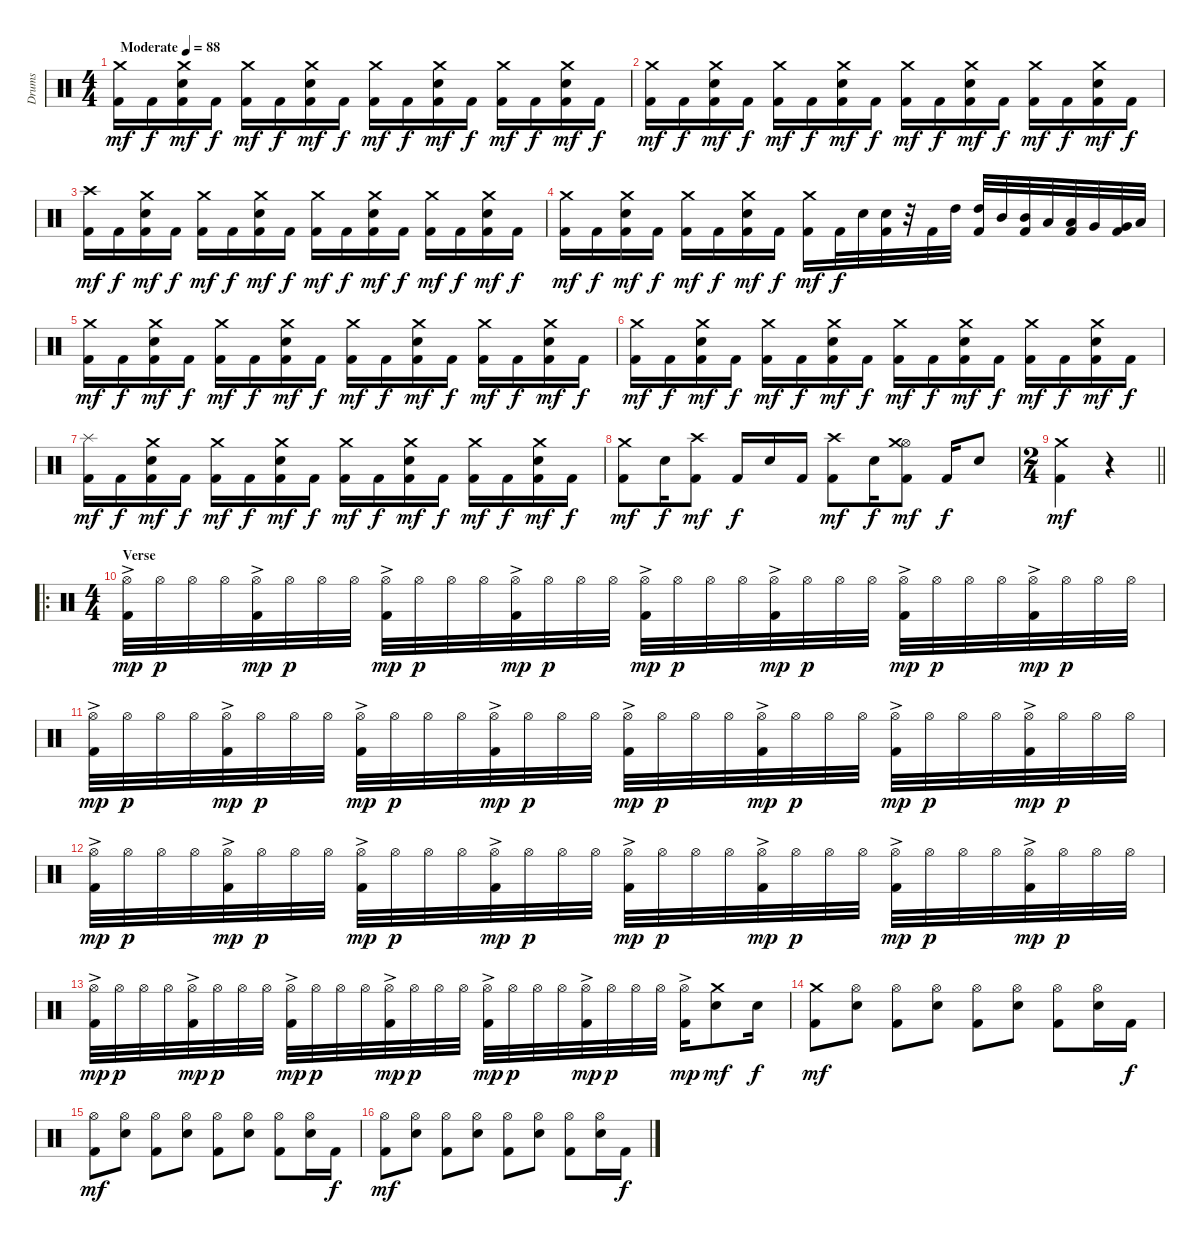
\track ("Drums" "Drums") {instrument percussion}
\staff {score}
\articulation defaults
\ts (4 4)
\tempo (88 "Moderate")
\clef neutral
\ks c
("Crash medium (hit)" "Kick (hit) 2").16{dy mf} "Kick (hit) 2".16{dy f} ("Crash medium (hit)" "Electric Snare (hit)" "Kick (hit) 2").16{dy mf} "Kick (hit) 2".16{dy f} ("Crash medium (hit)" "Kick (hit) 2").16{dy mf} "Kick (hit) 2".16{dy f} ("Crash medium (hit)" "Electric Snare (hit)" "Kick (hit) 2").16{dy mf} "Kick (hit) 2".16{dy f} ("Crash medium (hit)" "Kick (hit) 2").16{dy mf} "Kick (hit) 2".16{dy f} ("Crash medium (hit)" "Electric Snare (hit)" "Kick (hit) 2").16{dy mf} "Kick (hit) 2".16{dy f} ("Crash medium (hit)" "Kick (hit) 2").16{dy mf} "Kick (hit) 2".16{dy f} ("Crash medium (hit)" "Electric Snare (hit)" "Kick (hit) 2").16{dy mf} "Kick (hit) 2".16{dy f} |
("Crash medium (hit)" "Kick (hit) 2").16{dy mf} "Kick (hit) 2".16{dy f} ("Crash medium (hit)" "Electric Snare (hit)" "Kick (hit) 2").16{dy mf} "Kick (hit) 2".16{dy f} ("Crash medium (hit)" "Kick (hit) 2").16{dy mf} "Kick (hit) 2".16{dy f} ("Crash medium (hit)" "Electric Snare (hit)" "Kick (hit) 2").16{dy mf} "Kick (hit) 2".16{dy f} ("Crash medium (hit)" "Kick (hit) 2").16{dy mf} "Kick (hit) 2".16{dy f} ("Crash medium (hit)" "Electric Snare (hit)" "Kick (hit) 2").16{dy mf} "Kick (hit) 2".16{dy f} ("Crash medium (hit)" "Kick (hit) 2").16{dy mf} "Kick (hit) 2".16{dy f} ("Crash medium (hit)" "Electric Snare (hit)" "Kick (hit) 2").16{dy mf} "Kick (hit) 2".16{dy f} |
("Crash high (hit)" "Kick (hit) 2").16{dy mf} "Kick (hit) 2".16{dy f} ("Crash medium (hit)" "Electric Snare (hit)" "Kick (hit) 2").16{dy mf} "Kick (hit) 2".16{dy f} ("Crash medium (hit)" "Kick (hit) 2").16{dy mf} "Kick (hit) 2".16{dy f} ("Crash medium (hit)" "Electric Snare (hit)" "Kick (hit) 2").16{dy mf} "Kick (hit) 2".16{dy f} ("Crash medium (hit)" "Kick (hit) 2").16{dy mf} "Kick (hit) 2".16{dy f} ("Crash medium (hit)" "Electric Snare (hit)" "Kick (hit) 2").16{dy mf} "Kick (hit) 2".16{dy f} ("Crash medium (hit)" "Kick (hit) 2").16{dy mf} "Kick (hit) 2".16{dy f} ("Crash medium (hit)" "Electric Snare (hit)" "Kick (hit) 2").16{dy mf} "Kick (hit) 2".16{dy f} |
("Crash medium (hit)" "Kick (hit) 2").16{dy mf} "Kick (hit) 2".16{dy f} ("Crash medium (hit)" "Electric Snare (hit)" "Kick (hit) 2").16{dy mf} "Kick (hit) 2".16{dy f} ("Crash medium (hit)" "Kick (hit) 2").16{dy mf} "Kick (hit) 2".16{dy f} ("Crash medium (hit)" "Electric Snare (hit)" "Kick (hit) 2").16{dy mf} "Kick (hit) 2".16{dy f} ("Crash medium (hit)" "Kick (hit) 2").16{dy mf} "Kick (hit) 2".32{dy f} "Electric Snare (hit)".32 ("Electric Snare (hit)" "Kick (hit) 2").32 r.32 "Kick (hit) 2".32 "High Tom (hit)".32 ("High Tom (hit)" "Kick (hit) 2").32 "Mid Tom (hit)".32 ("Mid Tom (hit)" "Kick (hit) 2").32 "Low Tom (hit)".32 ("Low Tom (hit)" "Kick (hit) 2").32 "Very Low Tom (hit)".32 ("Very Low Tom (hit)" "Kick (hit) 2").32 "Low Floor Tom (hit)".32 |
("Crash medium (hit)" "Kick (hit) 2").16{dy mf} "Kick (hit) 2".16{dy f} ("Crash medium (hit)" "Electric Snare (hit)" "Kick (hit) 2").16{dy mf} "Kick (hit) 2".16{dy f} ("Crash medium (hit)" "Kick (hit) 2").16{dy mf} "Kick (hit) 2".16{dy f} ("Crash medium (hit)" "Electric Snare (hit)" "Kick (hit) 2").16{dy mf} "Kick (hit) 2".16{dy f} ("Crash medium (hit)" "Kick (hit) 2").16{dy mf} "Kick (hit) 2".16{dy f} ("Crash medium (hit)" "Electric Snare (hit)" "Kick (hit) 2").16{dy mf} "Kick (hit) 2".16{dy f} ("Crash medium (hit)" "Kick (hit) 2").16{dy mf} "Kick (hit) 2".16{dy f} ("Crash medium (hit)" "Electric Snare (hit)" "Kick (hit) 2").16{dy mf} "Kick (hit) 2".16{dy f} |
("Crash medium (hit)" "Kick (hit) 2").16{dy mf} "Kick (hit) 2".16{dy f} ("Crash medium (hit)" "Electric Snare (hit)" "Kick (hit) 2").16{dy mf} "Kick (hit) 2".16{dy f} ("Crash medium (hit)" "Kick (hit) 2").16{dy mf} "Kick (hit) 2".16{dy f} ("Crash medium (hit)" "Electric Snare (hit)" "Kick (hit) 2").16{dy mf} "Kick (hit) 2".16{dy f} ("Crash medium (hit)" "Kick (hit) 2").16{dy mf} "Kick (hit) 2".16{dy f} ("Crash medium (hit)" "Electric Snare (hit)" "Kick (hit) 2").16{dy mf} "Kick (hit) 2".16{dy f} ("Crash medium (hit)" "Kick (hit) 2").16{dy mf} "Kick (hit) 2".16{dy f} ("Crash medium (hit)" "Electric Snare (hit)" "Kick (hit) 2").16{dy mf} "Kick (hit) 2".16{dy f} |
("Splash (hit)" "Kick (hit) 2").16{dy mf} "Kick (hit) 2".16{dy f} ("Crash medium (hit)" "Electric Snare (hit)" "Kick (hit) 2").16{dy mf} "Kick (hit) 2".16{dy f} ("Crash medium (hit)" "Kick (hit) 2").16{dy mf} "Kick (hit) 2".16{dy f} ("Crash medium (hit)" "Electric Snare (hit)" "Kick (hit) 2").16{dy mf} "Kick (hit) 2".16{dy f} ("Crash medium (hit)" "Kick (hit) 2").16{dy mf} "Kick (hit) 2".16{dy f} ("Crash medium (hit)" "Electric Snare (hit)" "Kick (hit) 2").16{dy mf} "Kick (hit) 2".16{dy f} ("Crash medium (hit)" "Kick (hit) 2").16{dy mf} "Kick (hit) 2".16{dy f} ("Crash medium (hit)" "Electric Snare (hit)" "Kick (hit) 2").16{dy mf} "Kick (hit) 2".16{dy f} |
("Crash medium (hit)" "Kick (hit) 2").8{dy mf} "Electric Snare (hit)".16{dy f} ("Crash high (hit)" "Kick (hit) 2").8{dy mf} "Kick (hit) 2".16{dy f} "Electric Snare (hit)".16 "Kick (hit) 2".16 ("Crash high (hit)" "Kick (hit) 2").8{dy mf} "Electric Snare (hit)".16{dy f} ("Hi-Hat (open)" "Crash medium (hit)" "Kick (hit) 2").8{dy mf} "Kick (hit) 2".16{dy f} "Electric Snare (hit)".8 |
\ts (2 4)
\barLineRight lightlight
("Crash medium (hit)" "Kick (hit) 2").4{dy mf} r.4 |
\ro
\ts (4 4)
\section ("" "Verse")
("Hi-Hat (open)"{ac} "Kick (hit) 2").32{dy mp} "Hi-Hat (open)".32{dy p} "Hi-Hat (open)".32 "Hi-Hat (open)".32 ("Hi-Hat (open)"{ac} "Kick (hit) 2").32{dy mp} "Hi-Hat (open)".32{dy p} "Hi-Hat (open)".32 "Hi-Hat (open)".32 ("Hi-Hat (open)"{ac} "Kick (hit) 2").32{dy mp} "Hi-Hat (open)".32{dy p} "Hi-Hat (open)".32 "Hi-Hat (open)".32 ("Hi-Hat (open)"{ac} "Kick (hit) 2").32{dy mp} "Hi-Hat (open)".32{dy p} "Hi-Hat (open)".32 "Hi-Hat (open)".32 ("Hi-Hat (open)"{ac} "Kick (hit) 2").32{dy mp} "Hi-Hat (open)".32{dy p} "Hi-Hat (open)".32 "Hi-Hat (open)".32 ("Hi-Hat (open)"{ac} "Kick (hit) 2").32{dy mp} "Hi-Hat (open)".32{dy p} "Hi-Hat (open)".32 "Hi-Hat (open)".32 ("Hi-Hat (open)"{ac} "Kick (hit) 2").32{dy mp} "Hi-Hat (open)".32{dy p} "Hi-Hat (open)".32 "Hi-Hat (open)".32 ("Hi-Hat (open)"{ac} "Kick (hit) 2").32{dy mp} "Hi-Hat (open)".32{dy p} "Hi-Hat (open)".32 "Hi-Hat (open)".32 |
("Hi-Hat (open)"{ac} "Kick (hit) 2").32{dy mp} "Hi-Hat (open)".32{dy p} "Hi-Hat (open)".32 "Hi-Hat (open)".32 ("Hi-Hat (open)"{ac} "Kick (hit) 2").32{dy mp} "Hi-Hat (open)".32{dy p} "Hi-Hat (open)".32 "Hi-Hat (open)".32 ("Hi-Hat (open)"{ac} "Kick (hit) 2").32{dy mp} "Hi-Hat (open)".32{dy p} "Hi-Hat (open)".32 "Hi-Hat (open)".32 ("Hi-Hat (open)"{ac} "Kick (hit) 2").32{dy mp} "Hi-Hat (open)".32{dy p} "Hi-Hat (open)".32 "Hi-Hat (open)".32 ("Hi-Hat (open)"{ac} "Kick (hit) 2").32{dy mp} "Hi-Hat (open)".32{dy p} "Hi-Hat (open)".32 "Hi-Hat (open)".32 ("Hi-Hat (open)"{ac} "Kick (hit) 2").32{dy mp} "Hi-Hat (open)".32{dy p} "Hi-Hat (open)".32 "Hi-Hat (open)".32 ("Hi-Hat (open)"{ac} "Kick (hit) 2").32{dy mp} "Hi-Hat (open)".32{dy p} "Hi-Hat (open)".32 "Hi-Hat (open)".32 ("Hi-Hat (open)"{ac} "Kick (hit) 2").32{dy mp} "Hi-Hat (open)".32{dy p} "Hi-Hat (open)".32 "Hi-Hat (open)".32 |
("Hi-Hat (open)"{ac} "Kick (hit) 2").32{dy mp} "Hi-Hat (open)".32{dy p} "Hi-Hat (open)".32 "Hi-Hat (open)".32 ("Hi-Hat (open)"{ac} "Kick (hit) 2").32{dy mp} "Hi-Hat (open)".32{dy p} "Hi-Hat (open)".32 "Hi-Hat (open)".32 ("Hi-Hat (open)"{ac} "Kick (hit) 2").32{dy mp} "Hi-Hat (open)".32{dy p} "Hi-Hat (open)".32 "Hi-Hat (open)".32 ("Hi-Hat (open)"{ac} "Kick (hit) 2").32{dy mp} "Hi-Hat (open)".32{dy p} "Hi-Hat (open)".32 "Hi-Hat (open)".32 ("Hi-Hat (open)"{ac} "Kick (hit) 2").32{dy mp} "Hi-Hat (open)".32{dy p} "Hi-Hat (open)".32 "Hi-Hat (open)".32 ("Hi-Hat (open)"{ac} "Kick (hit) 2").32{dy mp} "Hi-Hat (open)".32{dy p} "Hi-Hat (open)".32 "Hi-Hat (open)".32 ("Hi-Hat (open)"{ac} "Kick (hit) 2").32{dy mp} "Hi-Hat (open)".32{dy p} "Hi-Hat (open)".32 "Hi-Hat (open)".32 ("Hi-Hat (open)"{ac} "Kick (hit) 2").32{dy mp} "Hi-Hat (open)".32{dy p} "Hi-Hat (open)".32 "Hi-Hat (open)".32 |
("Hi-Hat (open)"{ac} "Kick (hit) 2").32{dy mp} "Hi-Hat (open)".32{dy p} "Hi-Hat (open)".32 "Hi-Hat (open)".32 ("Hi-Hat (open)"{ac} "Kick (hit) 2").32{dy mp} "Hi-Hat (open)".32{dy p} "Hi-Hat (open)".32 "Hi-Hat (open)".32 ("Hi-Hat (open)"{ac} "Kick (hit) 2").32{dy mp} "Hi-Hat (open)".32{dy p} "Hi-Hat (open)".32 "Hi-Hat (open)".32 ("Hi-Hat (open)"{ac} "Kick (hit) 2").32{dy mp} "Hi-Hat (open)".32{dy p} "Hi-Hat (open)".32 "Hi-Hat (open)".32 ("Hi-Hat (open)"{ac} "Kick (hit) 2").32{dy mp} "Hi-Hat (open)".32{dy p} "Hi-Hat (open)".32 "Hi-Hat (open)".32 ("Hi-Hat (open)"{ac} "Kick (hit) 2").32{dy mp} "Hi-Hat (open)".32{dy p} "Hi-Hat (open)".32 "Hi-Hat (open)".32 ("Hi-Hat (open)"{ac} "Kick (hit) 2").16{dy mp} ("Crash medium (hit)" "Electric Snare (hit)").8{dy mf} "Electric Snare (hit)".16{dy f} |
("Crash medium (hit)" "Kick (hit) 2").8{dy mf} ("Hi-Hat (open)" "Electric Snare (hit)").8 ("Hi-Hat (open)" "Kick (hit) 2").8 ("Hi-Hat (open)" "Electric Snare (hit)").8 ("Hi-Hat (open)" "Kick (hit) 2").8 ("Hi-Hat (open)" "Electric Snare (hit)").8 ("Hi-Hat (open)" "Kick (hit) 2").8 ("Hi-Hat (open)" "Electric Snare (hit)").16 "Kick (hit) 2".16{dy f} |
("Hi-Hat (open)" "Kick (hit) 2").8{dy mf} ("Hi-Hat (open)" "Electric Snare (hit)").8 ("Hi-Hat (open)" "Kick (hit) 2").8 ("Hi-Hat (open)" "Electric Snare (hit)").8 ("Hi-Hat (open)" "Kick (hit) 2").8 ("Hi-Hat (open)" "Electric Snare (hit)").8 ("Hi-Hat (open)" "Kick (hit) 2").8 ("Hi-Hat (open)" "Electric Snare (hit)").16 "Kick (hit) 2".16{dy f} |
("Hi-Hat (open)" "Kick (hit) 2").8{dy mf} ("Hi-Hat (open)" "Electric Snare (hit)").8 ("Hi-Hat (open)" "Kick (hit) 2").8 ("Hi-Hat (open)" "Electric Snare (hit)").8 ("Hi-Hat (open)" "Kick (hit) 2").8 ("Hi-Hat (open)" "Electric Snare (hit)").8 ("Hi-Hat (open)" "Kick (hit) 2").8 ("Hi-Hat (open)" "Electric Snare (hit)").16 "Kick (hit) 2".16{dy f}
